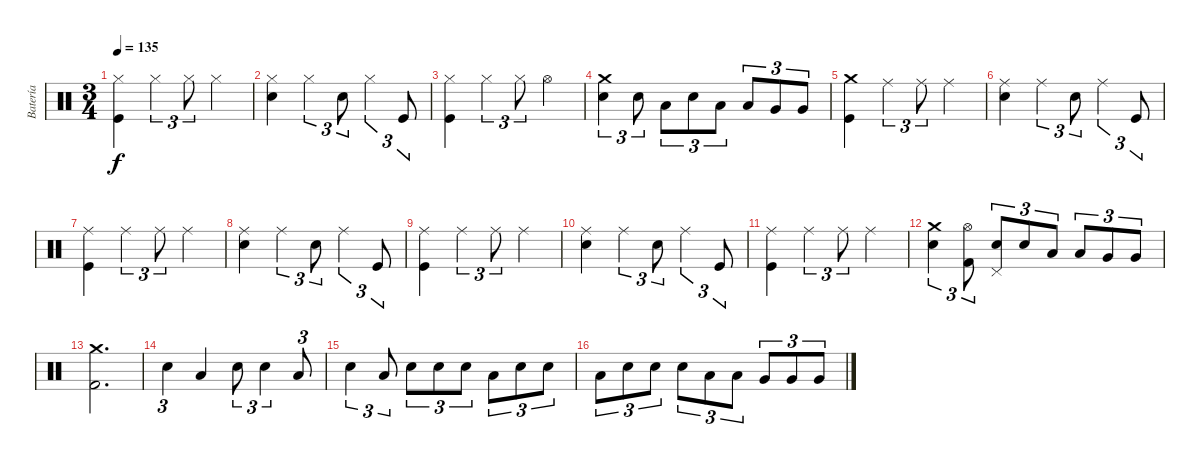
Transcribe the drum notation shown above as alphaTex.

\track ("Batería" "Batería") {instrument percussion}
\staff {score}
\articulation defaults
\ts (3 4)
\tempo 135
\clef neutral
\ks c
("Hi-Hat (closed)" "Kick (hit)").4{dy f} "Hi-Hat (closed)".4{tu (3 2)} "Hi-Hat (closed)".8{tu (3 2)} "Hi-Hat (closed)".4 |
("Hi-Hat (closed)" "Snare (hit) 2").4 "Hi-Hat (closed)".4{tu (3 2)} "Snare (hit) 2".8{tu (3 2)} "Hi-Hat (closed)".4{tu (3 2)} "Kick (hit)".8{tu (3 2)} |
("Hi-Hat (closed)" "Kick (hit)").4 "Hi-Hat (closed)".4{tu (3 2)} "Hi-Hat (closed)".8{tu (3 2)} "Hi-Hat (open)".4 |
("Crash medium (hit)" "Snare (hit) 2").4{tu (3 2)} "Snare (hit) 2".8{tu (3 2)} "Low Tom (hit)".8{tu (3 2)} "Snare (hit) 2".8{tu (3 2)} "Low Tom (hit)".8{tu (3 2)} "Low Tom (hit)".8{tu (3 2)} "Very Low Tom (hit)".8{tu (3 2)} "Very Low Tom (hit)".8{tu (3 2)} |
("Crash medium (hit)" "Kick (hit)").4 "Ride (middle)".4{tu (3 2)} "Ride (middle)".8{tu (3 2)} "Ride (middle)".4 |
("Ride (middle)" "Snare (hit) 2").4 "Ride (middle)".4{tu (3 2)} "Snare (hit) 2".8{tu (3 2)} "Ride (middle)".4{tu (3 2)} "Kick (hit)".8{tu (3 2)} |
("Ride (middle)" "Kick (hit)").4 "Ride (middle)".4{tu (3 2)} "Ride (middle)".8{tu (3 2)} "Ride (middle)".4 |
("Ride (middle)" "Snare (hit) 2").4 "Ride (middle)".4{tu (3 2)} "Snare (hit) 2".8{tu (3 2)} "Ride (middle)".4{tu (3 2)} "Kick (hit)".8{tu (3 2)} |
("Ride (middle)" "Kick (hit)").4 "Ride (middle)".4{tu (3 2)} "Ride (middle)".8{tu (3 2)} "Ride (middle)".4 |
("Ride (middle)" "Snare (hit) 2").4 "Ride (middle)".4{tu (3 2)} "Snare (hit) 2".8{tu (3 2)} "Ride (middle)".4{tu (3 2)} "Kick (hit)".8{tu (3 2)} |
("Ride (middle)" "Kick (hit)").4 "Ride (middle)".4{tu (3 2)} "Ride (middle)".8{tu (3 2)} "Ride (middle)".4 |
("Crash medium (hit)" "Snare (hit) 2").4{tu (3 2)} ("Hi-Hat (open)" "Kick (hit) 2").8{tu (3 2)} ("Pedal Hi-Hat (hit)" "Snare (hit) 2").8{tu (3 2)} "Snare (hit) 2".8{tu (3 2)} "Low Tom (hit)".8{tu (3 2)} "Low Tom (hit)".8{tu (3 2)} "Very Low Tom (hit)".8{tu (3 2)} "Very Low Tom (hit)".8{tu (3 2)} |
("Crash medium (hit)" "Kick (hit) 2").2{d} |
"Snare (hit) 2".4{tu (3 2)} "Low Tom (hit)".4 "Snare (hit) 2".8{tu (3 2)} "Snare (hit) 2".4{tu (3 2)} "Low Tom (hit)".8{tu (3 2)} |
"Snare (hit) 2".4{tu (3 2)} "Low Tom (hit)".8{tu (3 2)} "Snare (hit) 2".8{tu (3 2)} "Snare (hit) 2".8{tu (3 2)} "Snare (hit) 2".8{tu (3 2)} "Low Tom (hit)".8{tu (3 2)} "Snare (hit) 2".8{tu (3 2)} "Snare (hit) 2".8{tu (3 2)} |
"Low Tom (hit)".8{tu (3 2)} "Snare (hit) 2".8{tu (3 2)} "Snare (hit) 2".8{tu (3 2)} "Snare (hit) 2".8{tu (3 2)} "Low Tom (hit)".8{tu (3 2)} "Low Tom (hit)".8{tu (3 2)} "Very Low Tom (hit)".8{tu (3 2)} "Very Low Tom (hit)".8{tu (3 2)} "Very Low Tom (hit)".8{tu (3 2)}
